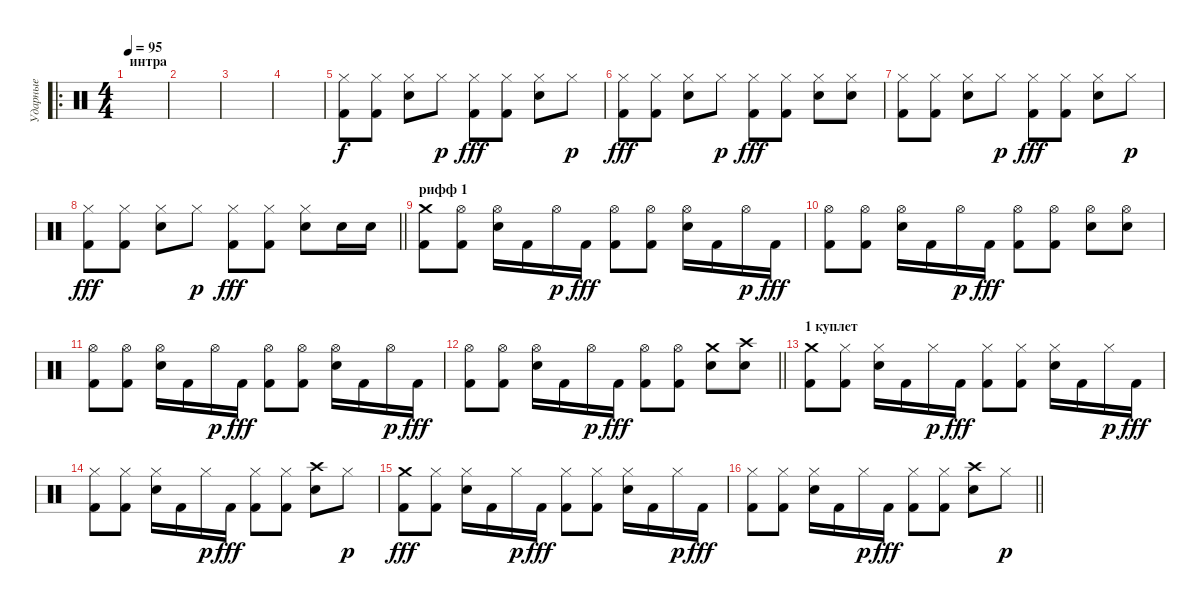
\track ("Ударные" "Ударные") {instrument percussion}
\staff {score}
\articulation defaults
\ro
\ts (4 4)
\section ("" "интра")
\tempo 95
\clef neutral
\ks c
|
|
|
|
("Hi-Hat (closed)" "Kick (hit) 2").8 ("Hi-Hat (closed)" "Kick (hit) 2").8 ("Hi-Hat (closed)" "Snare (hit) 2").8 "Hi-Hat (closed)".8{dy p} ("Hi-Hat (closed)" "Kick (hit) 2").8{dy fff} ("Hi-Hat (closed)" "Kick (hit) 2").8 ("Hi-Hat (closed)" "Snare (hit) 2").8 "Hi-Hat (closed)".8{dy p} |
("Hi-Hat (closed)" "Kick (hit) 2").8{dy fff} ("Hi-Hat (closed)" "Kick (hit) 2").8 ("Hi-Hat (closed)" "Snare (hit) 2").8 "Hi-Hat (closed)".8{dy p} ("Hi-Hat (closed)" "Kick (hit) 2").8{dy fff} ("Hi-Hat (closed)" "Kick (hit) 2").8 ("Hi-Hat (closed)" "Snare (hit) 2").8 ("Hi-Hat (closed)" "Snare (hit) 2").8 |
("Hi-Hat (closed)" "Kick (hit) 2").8 ("Hi-Hat (closed)" "Kick (hit) 2").8 ("Hi-Hat (closed)" "Snare (hit) 2").8 "Hi-Hat (closed)".8{dy p} ("Hi-Hat (closed)" "Kick (hit) 2").8{dy fff} ("Hi-Hat (closed)" "Kick (hit) 2").8 ("Hi-Hat (closed)" "Snare (hit) 2").8 "Hi-Hat (closed)".8{dy p} |
\barLineRight lightlight
("Hi-Hat (closed)" "Kick (hit) 2").8{dy fff} ("Hi-Hat (closed)" "Kick (hit) 2").8 ("Hi-Hat (closed)" "Snare (hit) 2").8 "Hi-Hat (closed)".8{dy p} ("Hi-Hat (closed)" "Kick (hit) 2").8{dy fff} ("Hi-Hat (closed)" "Kick (hit) 2").8 ("Hi-Hat (closed)" "Snare (hit) 2").8 "Snare (hit) 2".16 "Snare (hit) 2".16 |
\section ("" "рифф 1")
("Crash medium (hit)" "Kick (hit) 2").8 ("Hi-Hat (open)" "Kick (hit) 2").8 ("Hi-Hat (open)" "Snare (hit) 2").16 "Kick (hit) 2".16 "Hi-Hat (open)".16{dy p} "Kick (hit) 2".16{dy fff} ("Hi-Hat (open)" "Kick (hit) 2").8 ("Hi-Hat (open)" "Kick (hit) 2").8 ("Hi-Hat (open)" "Snare (hit) 2").16 "Kick (hit) 2".16 "Hi-Hat (open)".16{dy p} "Kick (hit) 2".16{dy fff} |
("Hi-Hat (open)" "Kick (hit) 2").8 ("Hi-Hat (open)" "Kick (hit) 2").8 ("Hi-Hat (open)" "Snare (hit) 2").16 "Kick (hit) 2".16 "Hi-Hat (open)".16{dy p} "Kick (hit) 2".16{dy fff} ("Hi-Hat (open)" "Kick (hit) 2").8 ("Hi-Hat (open)" "Kick (hit) 2").8 ("Hi-Hat (open)" "Snare (hit) 2").8 ("Hi-Hat (open)" "Snare (hit) 2").8 |
("Hi-Hat (open)" "Kick (hit) 2").8 ("Hi-Hat (open)" "Kick (hit) 2").8 ("Hi-Hat (open)" "Snare (hit) 2").16 "Kick (hit) 2".16 "Hi-Hat (open)".16{dy p} "Kick (hit) 2".16{dy fff} ("Hi-Hat (open)" "Kick (hit) 2").8 ("Hi-Hat (open)" "Kick (hit) 2").8 ("Hi-Hat (open)" "Snare (hit) 2").16 "Kick (hit) 2".16 "Hi-Hat (open)".16{dy p} "Kick (hit) 2".16{dy fff} |
\barLineRight lightlight
("Hi-Hat (open)" "Kick (hit) 2").8 ("Hi-Hat (open)" "Kick (hit) 2").8 ("Hi-Hat (open)" "Snare (hit) 2").16 "Kick (hit) 2".16 "Hi-Hat (open)".16{dy p} "Kick (hit) 2".16{dy fff} ("Hi-Hat (open)" "Kick (hit) 2").8 ("Hi-Hat (open)" "Kick (hit) 2").8 ("Crash medium (hit)" "Snare (hit) 2").8 ("Crash high (hit)" "Snare (hit) 2").8 |
\section ("" "1 куплет")
("Crash medium (hit)" "Kick (hit) 2").8 ("Hi-Hat (closed)" "Kick (hit) 2").8 ("Hi-Hat (closed)" "Snare (hit) 2").16 "Kick (hit) 2".16 "Hi-Hat (closed)".16{dy p} "Kick (hit) 2".16{dy fff} ("Hi-Hat (closed)" "Kick (hit) 2").8 ("Hi-Hat (closed)" "Kick (hit) 2").8 ("Hi-Hat (closed)" "Snare (hit) 2").16 "Kick (hit) 2".16 "Hi-Hat (closed)".16{dy p} "Kick (hit) 2".16{dy fff} |
("Hi-Hat (closed)" "Kick (hit) 2").8 ("Hi-Hat (closed)" "Kick (hit) 2").8 ("Hi-Hat (closed)" "Snare (hit) 2").16 "Kick (hit) 2".16 "Hi-Hat (closed)".16{dy p} "Kick (hit) 2".16{dy fff} ("Hi-Hat (closed)" "Kick (hit) 2").8 ("Hi-Hat (closed)" "Kick (hit) 2").8 ("Crash high (hit)" "Snare (hit) 2").8 "Hi-Hat (closed)".8{dy p} |
("Crash medium (hit)" "Kick (hit) 2").8{dy fff} ("Hi-Hat (closed)" "Kick (hit) 2").8 ("Hi-Hat (closed)" "Snare (hit) 2").16 "Kick (hit) 2".16 "Hi-Hat (closed)".16{dy p} "Kick (hit) 2".16{dy fff} ("Hi-Hat (closed)" "Kick (hit) 2").8 ("Hi-Hat (closed)" "Kick (hit) 2").8 ("Hi-Hat (closed)" "Snare (hit) 2").16 "Kick (hit) 2".16 "Hi-Hat (closed)".16{dy p} "Kick (hit) 2".16{dy fff} |
\barLineRight lightlight
("Hi-Hat (closed)" "Kick (hit) 2").8 ("Hi-Hat (closed)" "Kick (hit) 2").8 ("Hi-Hat (closed)" "Snare (hit) 2").16 "Kick (hit) 2".16 "Hi-Hat (closed)".16{dy p} "Kick (hit) 2".16{dy fff} ("Hi-Hat (closed)" "Kick (hit) 2").8 ("Hi-Hat (closed)" "Kick (hit) 2").8 ("Crash high (hit)" "Snare (hit) 2").8 "Hi-Hat (closed)".8{dy p}
